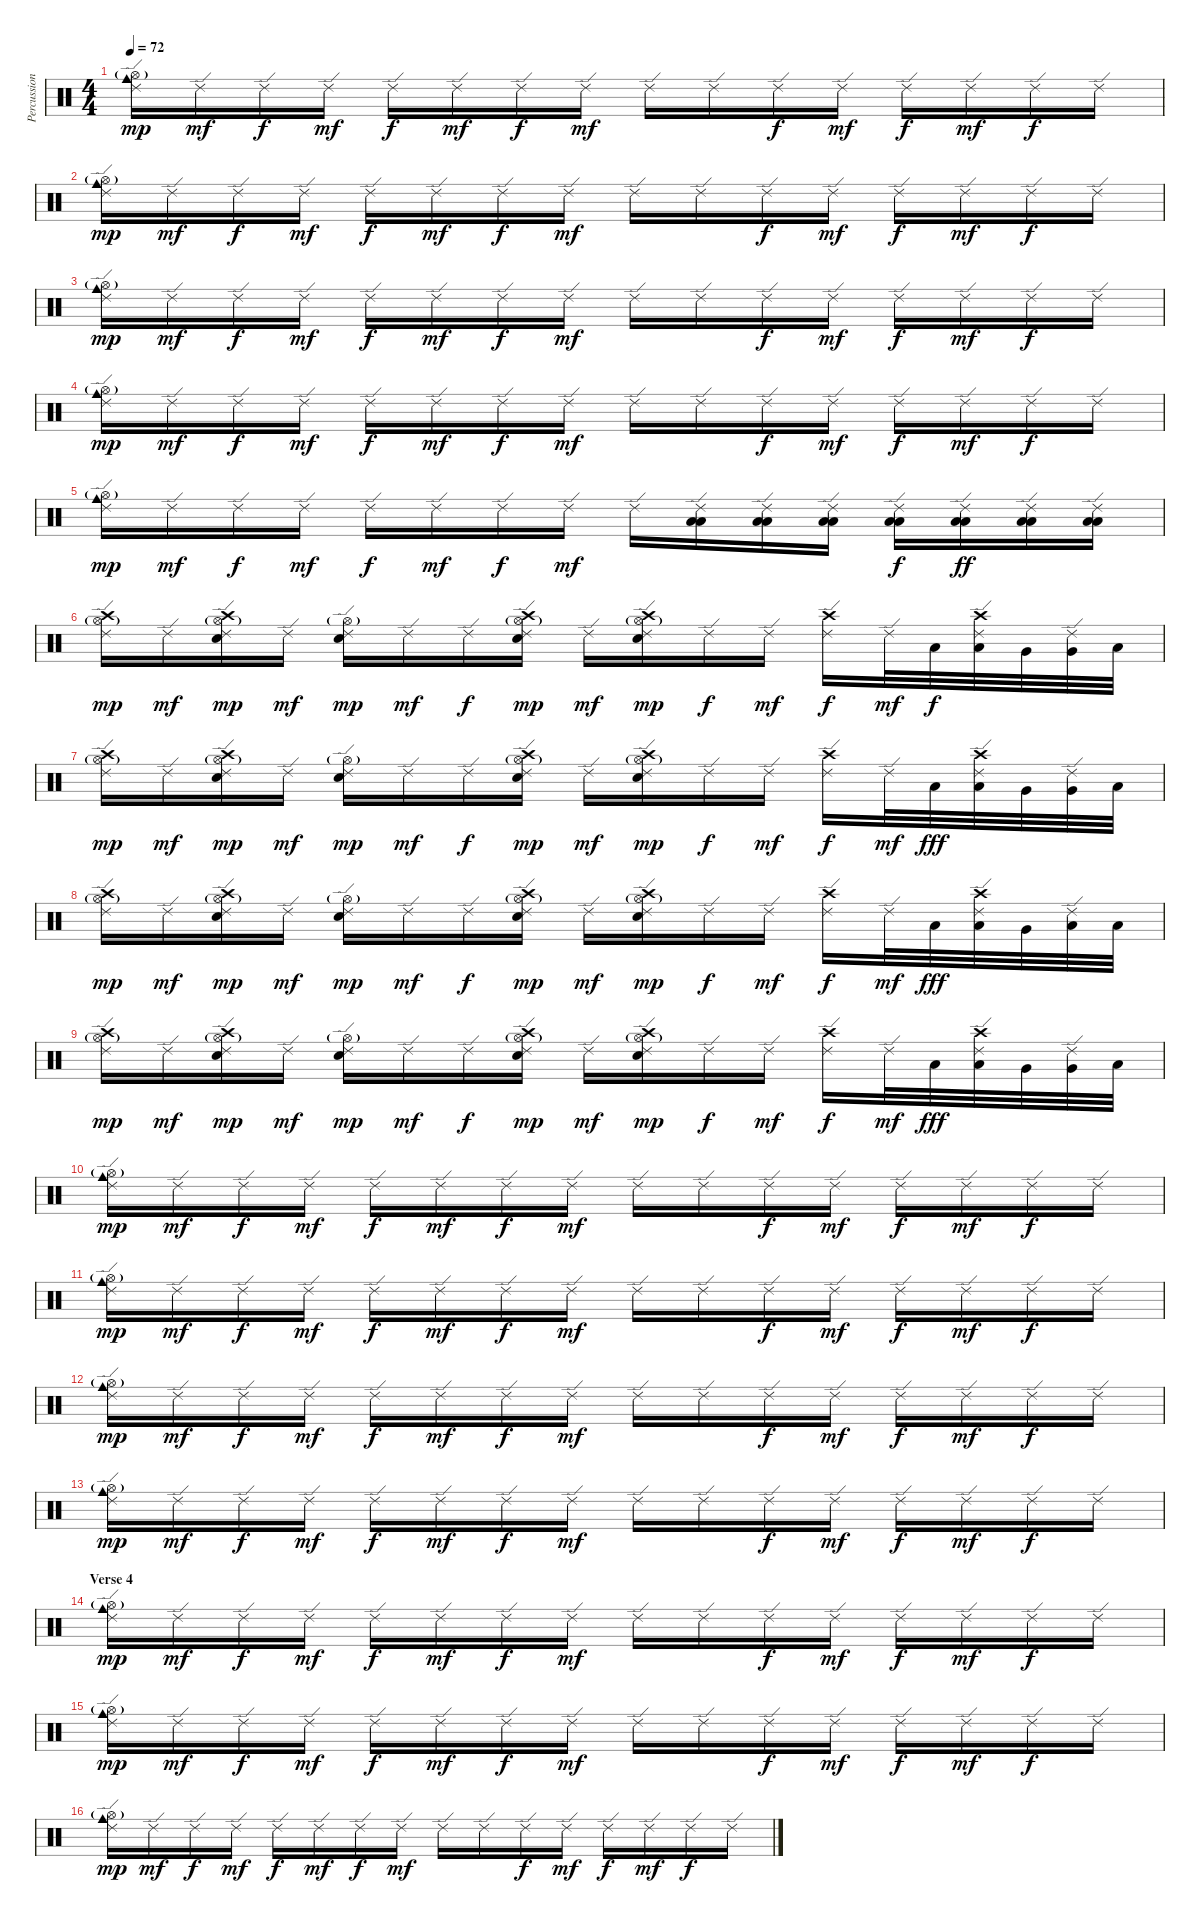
\track ("Percussion" "Percussion") {instrument percussion}
\staff {score}
\articulation defaults
\ts (4 4)
\tempo 72
\clef neutral
\ks c
("Ride (edge) 2" "Hi-Hat (open)"{g} "Cowbell medium (hit)").16{dy mp} "Ride (edge) 2".16{dy mf} "Ride (edge) 2".16{dy f} "Ride (edge) 2".16{dy mf} "Ride (edge) 2".16{dy f} "Ride (edge) 2".16{dy mf} "Ride (edge) 2".16{dy f} "Ride (edge) 2".16{dy mf} "Ride (edge) 2".16 "Ride (edge) 2".16 "Ride (edge) 2".16{dy f} "Ride (edge) 2".16{dy mf} "Ride (edge) 2".16{dy f} "Ride (edge) 2".16{dy mf} "Ride (edge) 2".16{dy f} "Ride (edge) 2".16 |
("Ride (edge) 2" "Hi-Hat (open)"{g} "Cowbell medium (hit)").16{dy mp} "Ride (edge) 2".16{dy mf} "Ride (edge) 2".16{dy f} "Ride (edge) 2".16{dy mf} "Ride (edge) 2".16{dy f} "Ride (edge) 2".16{dy mf} "Ride (edge) 2".16{dy f} "Ride (edge) 2".16{dy mf} "Ride (edge) 2".16 "Ride (edge) 2".16 "Ride (edge) 2".16{dy f} "Ride (edge) 2".16{dy mf} "Ride (edge) 2".16{dy f} "Ride (edge) 2".16{dy mf} "Ride (edge) 2".16{dy f} "Ride (edge) 2".16 |
("Ride (edge) 2" "Hi-Hat (open)"{g} "Cowbell medium (hit)").16{dy mp} "Ride (edge) 2".16{dy mf} "Ride (edge) 2".16{dy f} "Ride (edge) 2".16{dy mf} "Ride (edge) 2".16{dy f} "Ride (edge) 2".16{dy mf} "Ride (edge) 2".16{dy f} "Ride (edge) 2".16{dy mf} "Ride (edge) 2".16 "Ride (edge) 2".16 "Ride (edge) 2".16{dy f} "Ride (edge) 2".16{dy mf} "Ride (edge) 2".16{dy f} "Ride (edge) 2".16{dy mf} "Ride (edge) 2".16{dy f} "Ride (edge) 2".16 |
("Ride (edge) 2" "Hi-Hat (open)"{g} "Cowbell medium (hit)").16{dy mp} "Ride (edge) 2".16{dy mf} "Ride (edge) 2".16{dy f} "Ride (edge) 2".16{dy mf} "Ride (edge) 2".16{dy f} "Ride (edge) 2".16{dy mf} "Ride (edge) 2".16{dy f} "Ride (edge) 2".16{dy mf} "Ride (edge) 2".16 "Ride (edge) 2".16 "Ride (edge) 2".16{dy f} "Ride (edge) 2".16{dy mf} "Ride (edge) 2".16{dy f} "Ride (edge) 2".16{dy mf} "Ride (edge) 2".16{dy f} "Ride (edge) 2".16 |
("Ride (edge) 2" "Hi-Hat (open)"{g} "Cowbell medium (hit)").16{dy mp} "Ride (edge) 2".16{dy mf} "Ride (edge) 2".16{dy f} "Ride (edge) 2".16{dy mf} "Ride (edge) 2".16{dy f} "Ride (edge) 2".16{dy mf} "Ride (edge) 2".16{dy f} "Ride (edge) 2".16{dy mf} "Ride (edge) 2".16 ("Ride (edge) 2" "Low Tom (hit)" "Low Floor Tom (hit)").16 ("Ride (edge) 2" "Low Tom (hit)" "Low Floor Tom (hit)").16 ("Ride (edge) 2" "Low Tom (hit)" "Low Floor Tom (hit)").16 ("Ride (edge) 2" "Low Tom (hit)" "Low Floor Tom (hit)").16{dy f} ("Ride (edge) 2" "Low Tom (hit)" "Low Floor Tom (hit)").16{dy ff} ("Ride (edge) 2" "Low Tom (hit)" "Low Floor Tom (hit)").16 ("Ride (edge) 2" "Low Tom (hit)" "Low Floor Tom (hit)").16 |
("Ride (edge) 2" "Hi-Hat (open)"{g} "Crash high (hit)").16{dy mp} "Ride (edge) 2".16{dy mf} ("Ride (edge) 2" "Hi-Hat (open)"{g} "Crash high (hit)" "Electric Snare (hit)").16{dy mp} "Ride (edge) 2".16{dy mf} ("Ride (edge) 2" "Hi-Hat (open)"{g} "Electric Snare (hit)").16{dy mp} "Ride (edge) 2".16{dy mf} "Ride (edge) 2".16{dy f} ("Ride (edge) 2" "Hi-Hat (open)"{g} "Crash high (hit)" "Electric Snare (hit)").16{dy mp} "Ride (edge) 2".16{dy mf} ("Ride (edge) 2" "Hi-Hat (open)"{g} "Crash high (hit)" "Electric Snare (hit)").16{dy mp} "Ride (edge) 2".16{dy f} "Ride (edge) 2".16{dy mf} ("Ride (edge) 2" "Crash high (hit)").16{dy f} "Ride (edge) 2".32{dy mf} "Low Tom (hit)".32{dy f} ("Ride (edge) 2" "Crash high (hit)" "Low Tom (hit)").32 "Very Low Tom (hit)".32 ("Ride (edge) 2" "Very Low Tom (hit)").32 "Low Floor Tom (hit)".32 |
("Ride (edge) 2" "Hi-Hat (open)"{g} "Crash high (hit)").16{dy mp} "Ride (edge) 2".16{dy mf} ("Ride (edge) 2" "Hi-Hat (open)"{g} "Crash high (hit)" "Electric Snare (hit)").16{dy mp} "Ride (edge) 2".16{dy mf} ("Ride (edge) 2" "Hi-Hat (open)"{g} "Electric Snare (hit)").16{dy mp} "Ride (edge) 2".16{dy mf} "Ride (edge) 2".16{dy f} ("Ride (edge) 2" "Hi-Hat (open)"{g} "Crash high (hit)" "Electric Snare (hit)").16{dy mp} "Ride (edge) 2".16{dy mf} ("Ride (edge) 2" "Hi-Hat (open)"{g} "Crash high (hit)" "Electric Snare (hit)").16{dy mp} "Ride (edge) 2".16{dy f} "Ride (edge) 2".16{dy mf} ("Ride (edge) 2" "Crash high (hit)").16{dy f} "Ride (edge) 2".32{dy mf} "Low Tom (hit)".32{dy fff} ("Ride (edge) 2" "Crash high (hit)" "Low Tom (hit)").32 "Very Low Tom (hit)".32 ("Ride (edge) 2" "Very Low Tom (hit)").32 "Low Floor Tom (hit)".32 |
("Ride (edge) 2" "Hi-Hat (open)"{g} "Crash high (hit)").16{dy mp} "Ride (edge) 2".16{dy mf} ("Ride (edge) 2" "Hi-Hat (open)"{g} "Crash high (hit)" "Electric Snare (hit)").16{dy mp} "Ride (edge) 2".16{dy mf} ("Ride (edge) 2" "Hi-Hat (open)"{g} "Electric Snare (hit)").16{dy mp} "Ride (edge) 2".16{dy mf} "Ride (edge) 2".16{dy f} ("Ride (edge) 2" "Hi-Hat (open)"{g} "Crash high (hit)" "Electric Snare (hit)").16{dy mp} "Ride (edge) 2".16{dy mf} ("Ride (edge) 2" "Hi-Hat (open)"{g} "Crash high (hit)" "Electric Snare (hit)").16{dy mp} "Ride (edge) 2".16{dy f} "Ride (edge) 2".16{dy mf} ("Ride (edge) 2" "Crash high (hit)").16{dy f} "Ride (edge) 2".32{dy mf} "Low Tom (hit)".32{dy fff} ("Ride (edge) 2" "Crash high (hit)" "Low Tom (hit)").32 "Very Low Tom (hit)".32 ("Ride (edge) 2" "Low Floor Tom (hit)").32 "Low Floor Tom (hit)".32 |
("Ride (edge) 2" "Hi-Hat (open)"{g} "Crash high (hit)").16{dy mp} "Ride (edge) 2".16{dy mf} ("Ride (edge) 2" "Hi-Hat (open)"{g} "Crash high (hit)" "Electric Snare (hit)").16{dy mp} "Ride (edge) 2".16{dy mf} ("Ride (edge) 2" "Hi-Hat (open)"{g} "Electric Snare (hit)").16{dy mp} "Ride (edge) 2".16{dy mf} "Ride (edge) 2".16{dy f} ("Ride (edge) 2" "Hi-Hat (open)"{g} "Crash high (hit)" "Electric Snare (hit)").16{dy mp} "Ride (edge) 2".16{dy mf} ("Ride (edge) 2" "Hi-Hat (open)"{g} "Crash high (hit)" "Electric Snare (hit)").16{dy mp} "Ride (edge) 2".16{dy f} "Ride (edge) 2".16{dy mf} ("Ride (edge) 2" "Crash high (hit)").16{dy f} "Ride (edge) 2".32{dy mf} "Low Tom (hit)".32{dy fff} ("Ride (edge) 2" "Crash high (hit)" "Low Tom (hit)").32 "Very Low Tom (hit)".32 ("Ride (edge) 2" "Very Low Tom (hit)").32 "Low Floor Tom (hit)".32 |
("Ride (edge) 2" "Hi-Hat (open)"{g} "Cowbell medium (hit)").16{dy mp} "Ride (edge) 2".16{dy mf} "Ride (edge) 2".16{dy f} "Ride (edge) 2".16{dy mf} "Ride (edge) 2".16{dy f} "Ride (edge) 2".16{dy mf} "Ride (edge) 2".16{dy f} "Ride (edge) 2".16{dy mf} "Ride (edge) 2".16 "Ride (edge) 2".16 "Ride (edge) 2".16{dy f} "Ride (edge) 2".16{dy mf} "Ride (edge) 2".16{dy f} "Ride (edge) 2".16{dy mf} "Ride (edge) 2".16{dy f} "Ride (edge) 2".16 |
("Ride (edge) 2" "Hi-Hat (open)"{g} "Cowbell medium (hit)").16{dy mp} "Ride (edge) 2".16{dy mf} "Ride (edge) 2".16{dy f} "Ride (edge) 2".16{dy mf} "Ride (edge) 2".16{dy f} "Ride (edge) 2".16{dy mf} "Ride (edge) 2".16{dy f} "Ride (edge) 2".16{dy mf} "Ride (edge) 2".16 "Ride (edge) 2".16 "Ride (edge) 2".16{dy f} "Ride (edge) 2".16{dy mf} "Ride (edge) 2".16{dy f} "Ride (edge) 2".16{dy mf} "Ride (edge) 2".16{dy f} "Ride (edge) 2".16 |
("Ride (edge) 2" "Hi-Hat (open)"{g} "Cowbell medium (hit)").16{dy mp} "Ride (edge) 2".16{dy mf} "Ride (edge) 2".16{dy f} "Ride (edge) 2".16{dy mf} "Ride (edge) 2".16{dy f} "Ride (edge) 2".16{dy mf} "Ride (edge) 2".16{dy f} "Ride (edge) 2".16{dy mf} "Ride (edge) 2".16 "Ride (edge) 2".16 "Ride (edge) 2".16{dy f} "Ride (edge) 2".16{dy mf} "Ride (edge) 2".16{dy f} "Ride (edge) 2".16{dy mf} "Ride (edge) 2".16{dy f} "Ride (edge) 2".16 |
("Ride (edge) 2" "Hi-Hat (open)"{g} "Cowbell medium (hit)").16{dy mp} "Ride (edge) 2".16{dy mf} "Ride (edge) 2".16{dy f} "Ride (edge) 2".16{dy mf} "Ride (edge) 2".16{dy f} "Ride (edge) 2".16{dy mf} "Ride (edge) 2".16{dy f} "Ride (edge) 2".16{dy mf} "Ride (edge) 2".16 "Ride (edge) 2".16 "Ride (edge) 2".16{dy f} "Ride (edge) 2".16{dy mf} "Ride (edge) 2".16{dy f} "Ride (edge) 2".16{dy mf} "Ride (edge) 2".16{dy f} "Ride (edge) 2".16 |
\section ("" "Verse 4")
("Ride (edge) 2" "Hi-Hat (open)"{g} "Cowbell medium (hit)").16{dy mp} "Ride (edge) 2".16{dy mf} "Ride (edge) 2".16{dy f} "Ride (edge) 2".16{dy mf} "Ride (edge) 2".16{dy f} "Ride (edge) 2".16{dy mf} "Ride (edge) 2".16{dy f} "Ride (edge) 2".16{dy mf} "Ride (edge) 2".16 "Ride (edge) 2".16 "Ride (edge) 2".16{dy f} "Ride (edge) 2".16{dy mf} "Ride (edge) 2".16{dy f} "Ride (edge) 2".16{dy mf} "Ride (edge) 2".16{dy f} "Ride (edge) 2".16 |
("Ride (edge) 2" "Hi-Hat (open)"{g} "Cowbell medium (hit)").16{dy mp} "Ride (edge) 2".16{dy mf} "Ride (edge) 2".16{dy f} "Ride (edge) 2".16{dy mf} "Ride (edge) 2".16{dy f} "Ride (edge) 2".16{dy mf} "Ride (edge) 2".16{dy f} "Ride (edge) 2".16{dy mf} "Ride (edge) 2".16 "Ride (edge) 2".16 "Ride (edge) 2".16{dy f} "Ride (edge) 2".16{dy mf} "Ride (edge) 2".16{dy f} "Ride (edge) 2".16{dy mf} "Ride (edge) 2".16{dy f} "Ride (edge) 2".16 |
("Ride (edge) 2" "Hi-Hat (open)"{g} "Cowbell medium (hit)").16{dy mp} "Ride (edge) 2".16{dy mf} "Ride (edge) 2".16{dy f} "Ride (edge) 2".16{dy mf} "Ride (edge) 2".16{dy f} "Ride (edge) 2".16{dy mf} "Ride (edge) 2".16{dy f} "Ride (edge) 2".16{dy mf} "Ride (edge) 2".16 "Ride (edge) 2".16 "Ride (edge) 2".16{dy f} "Ride (edge) 2".16{dy mf} "Ride (edge) 2".16{dy f} "Ride (edge) 2".16{dy mf} "Ride (edge) 2".16{dy f} "Ride (edge) 2".16
